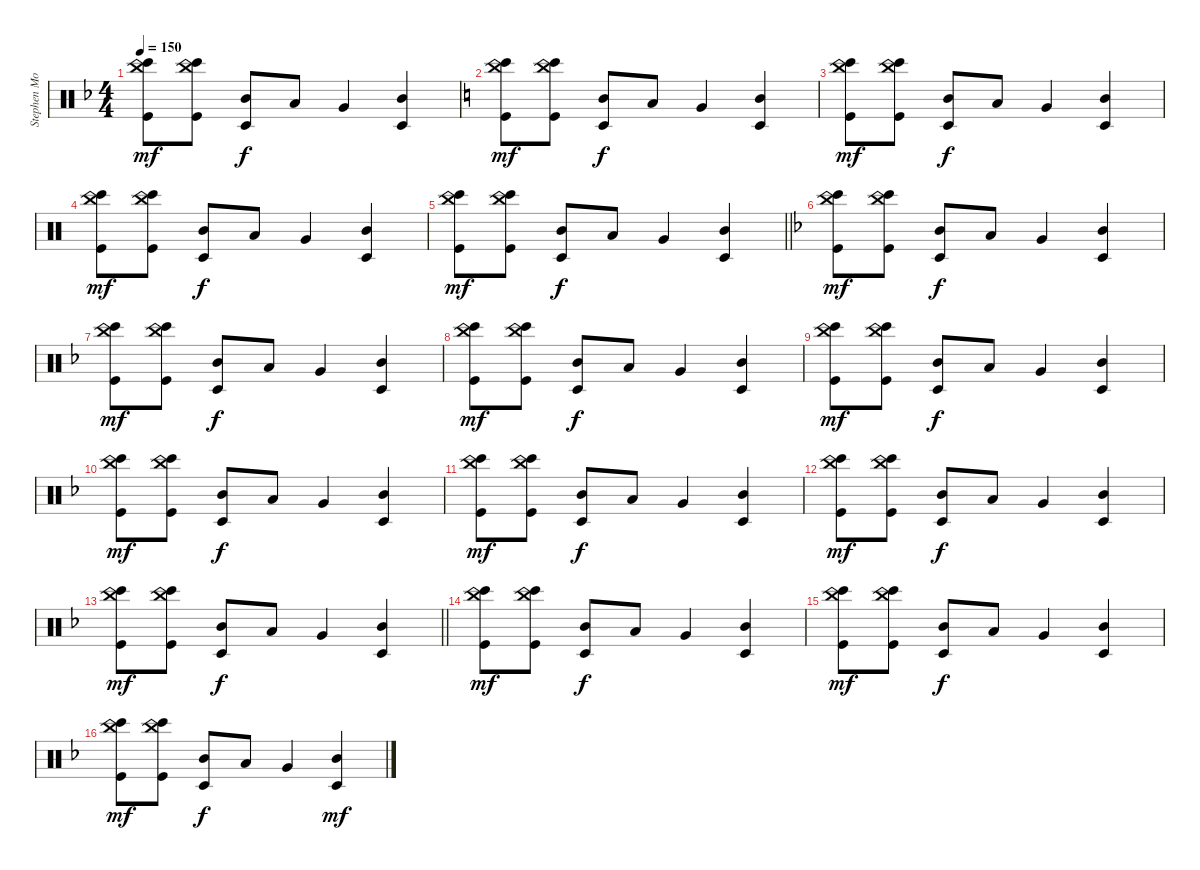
\track ("Stephen Morris (Drums)" "Stephen Mo") {instrument percussion}
\staff {score}
\articulation defaults
\ts (4 4)
\tempo 150
\clef neutral
\ks f
("China (hit)" "Bongo High (hit)" "Kick (hit)").8{dy mf} ("China (hit)" "Bongo High (hit)" "Kick (hit)").8 ("Mid Tom (hit)" "Timbale low (hit)").8{dy f} "Low Tom (hit)".8 "Very Low Tom (hit)".4 ("Mid Tom (hit)" "Timbale low (hit)").4 |
\ks c
("China (hit)" "Bongo High (hit)" "Kick (hit)").8{dy mf} ("China (hit)" "Bongo High (hit)" "Kick (hit)").8 ("Mid Tom (hit)" "Timbale low (hit)").8{dy f} "Low Tom (hit)".8 "Very Low Tom (hit)".4 ("Mid Tom (hit)" "Timbale low (hit)").4 |
("China (hit)" "Bongo High (hit)" "Kick (hit)").8{dy mf} ("China (hit)" "Bongo High (hit)" "Kick (hit)").8 ("Mid Tom (hit)" "Timbale low (hit)").8{dy f} "Low Tom (hit)".8 "Very Low Tom (hit)".4 ("Mid Tom (hit)" "Timbale low (hit)").4 |
("China (hit)" "Bongo High (hit)" "Kick (hit)").8{dy mf} ("China (hit)" "Bongo High (hit)" "Kick (hit)").8 ("Mid Tom (hit)" "Timbale low (hit)").8{dy f} "Low Tom (hit)".8 "Very Low Tom (hit)".4 ("Mid Tom (hit)" "Timbale low (hit)").4 |
\barLineRight lightlight
("China (hit)" "Bongo High (hit)" "Kick (hit)").8{dy mf} ("China (hit)" "Bongo High (hit)" "Kick (hit)").8 ("Mid Tom (hit)" "Timbale low (hit)").8{dy f} "Low Tom (hit)".8 "Very Low Tom (hit)".4 ("Mid Tom (hit)" "Timbale low (hit)").4 |
\ks f
("China (hit)" "Bongo High (hit)" "Kick (hit)").8{dy mf} ("China (hit)" "Bongo High (hit)" "Kick (hit)").8 ("Mid Tom (hit)" "Timbale low (hit)").8{dy f} "Low Tom (hit)".8 "Very Low Tom (hit)".4 ("Mid Tom (hit)" "Timbale low (hit)").4 |
("China (hit)" "Bongo High (hit)" "Kick (hit)").8{dy mf} ("China (hit)" "Bongo High (hit)" "Kick (hit)").8 ("Mid Tom (hit)" "Timbale low (hit)").8{dy f} "Low Tom (hit)".8 "Very Low Tom (hit)".4 ("Mid Tom (hit)" "Timbale low (hit)").4 |
("China (hit)" "Bongo High (hit)" "Kick (hit)").8{dy mf} ("China (hit)" "Bongo High (hit)" "Kick (hit)").8 ("Mid Tom (hit)" "Timbale low (hit)").8{dy f} "Low Tom (hit)".8 "Very Low Tom (hit)".4 ("Mid Tom (hit)" "Timbale low (hit)").4 |
("China (hit)" "Bongo High (hit)" "Kick (hit)").8{dy mf} ("China (hit)" "Bongo High (hit)" "Kick (hit)").8 ("Mid Tom (hit)" "Timbale low (hit)").8{dy f} "Low Tom (hit)".8 "Very Low Tom (hit)".4 ("Mid Tom (hit)" "Timbale low (hit)").4 |
("China (hit)" "Bongo High (hit)" "Kick (hit)").8{dy mf} ("China (hit)" "Bongo High (hit)" "Kick (hit)").8 ("Mid Tom (hit)" "Timbale low (hit)").8{dy f} "Low Tom (hit)".8 "Very Low Tom (hit)".4 ("Mid Tom (hit)" "Timbale low (hit)").4 |
("China (hit)" "Bongo High (hit)" "Kick (hit)").8{dy mf} ("China (hit)" "Bongo High (hit)" "Kick (hit)").8 ("Mid Tom (hit)" "Timbale low (hit)").8{dy f} "Low Tom (hit)".8 "Very Low Tom (hit)".4 ("Mid Tom (hit)" "Timbale low (hit)").4 |
("China (hit)" "Bongo High (hit)" "Kick (hit)").8{dy mf} ("China (hit)" "Bongo High (hit)" "Kick (hit)").8 ("Mid Tom (hit)" "Timbale low (hit)").8{dy f} "Low Tom (hit)".8 "Very Low Tom (hit)".4 ("Mid Tom (hit)" "Timbale low (hit)").4 |
\barLineRight lightlight
("China (hit)" "Bongo High (hit)" "Kick (hit)").8{dy mf} ("China (hit)" "Bongo High (hit)" "Kick (hit)").8 ("Mid Tom (hit)" "Timbale low (hit)").8{dy f} "Low Tom (hit)".8 "Very Low Tom (hit)".4 ("Mid Tom (hit)" "Timbale low (hit)").4 |
("China (hit)" "Bongo High (hit)" "Kick (hit)").8{dy mf} ("China (hit)" "Bongo High (hit)" "Kick (hit)").8 ("Mid Tom (hit)" "Timbale low (hit)").8{dy f} "Low Tom (hit)".8 "Very Low Tom (hit)".4 ("Mid Tom (hit)" "Timbale low (hit)").4 |
("China (hit)" "Bongo High (hit)" "Kick (hit)").8{dy mf} ("China (hit)" "Bongo High (hit)" "Kick (hit)").8 ("Mid Tom (hit)" "Timbale low (hit)").8{dy f} "Low Tom (hit)".8 "Very Low Tom (hit)".4 ("Mid Tom (hit)" "Timbale low (hit)").4 |
("China (hit)" "Bongo High (hit)" "Kick (hit)").8{dy mf} ("China (hit)" "Bongo High (hit)" "Kick (hit)").8 ("Mid Tom (hit)" "Timbale low (hit)").8{dy f} "Low Tom (hit)".8 "Very Low Tom (hit)".4 ("Mid Tom (hit)" "Timbale low (hit)").4{dy mf}
